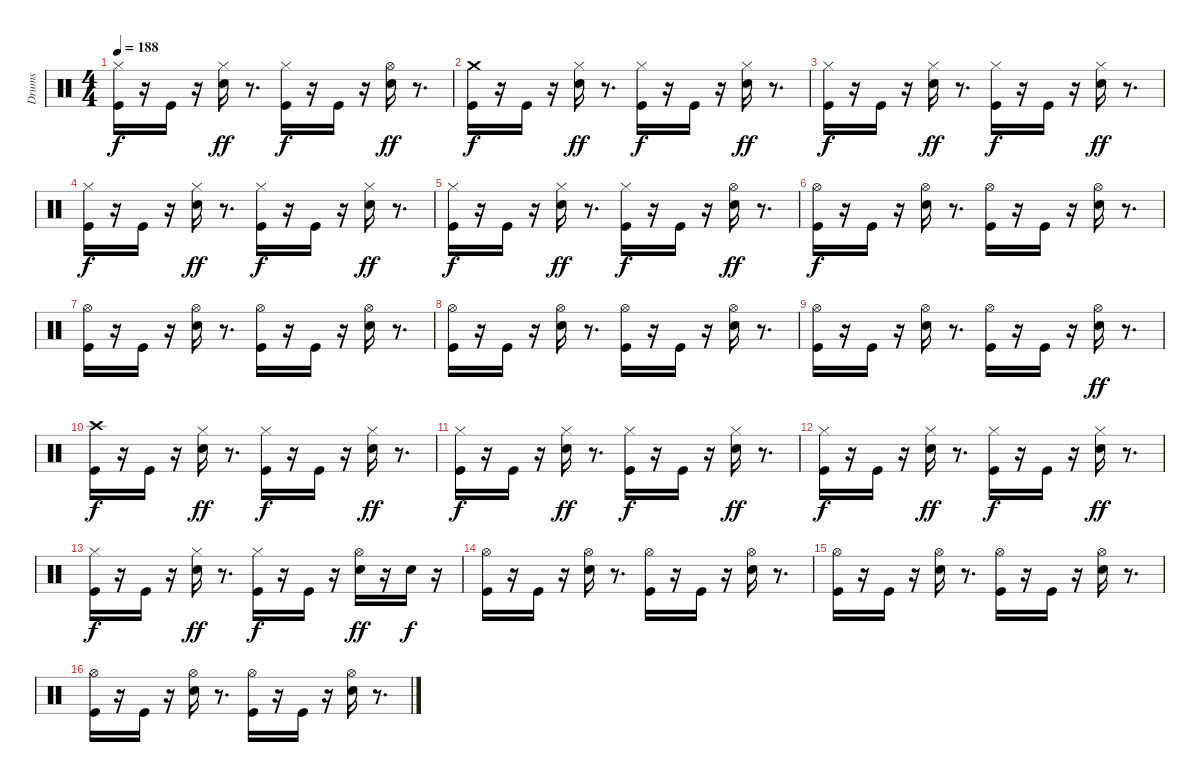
\track ("Drums" "Drums") {instrument percussion}
\staff {score}
\articulation defaults
\ts (4 4)
\tempo 188
\clef neutral
\ks c
("Hi-Hat (closed)" "Kick (hit)").16{dy f} r.16 "Kick (hit)".16 r.16 ("Snare (hit) 2" "Hi-Hat (closed)").16{dy ff} r.8{d} ("Hi-Hat (closed)" "Kick (hit)").16{dy f} r.16 "Kick (hit)".16 r.16 ("Snare (hit) 2" "Hi-Hat (open)").16{dy ff} r.8{d} |
("Crash medium (hit)" "Kick (hit)").16{dy f} r.16 "Kick (hit)".16 r.16 ("Snare (hit) 2" "Hi-Hat (closed)").16{dy ff} r.8{d} ("Hi-Hat (closed)" "Kick (hit)").16{dy f} r.16 "Kick (hit)".16 r.16 ("Snare (hit) 2" "Hi-Hat (closed)").16{dy ff} r.8{d} |
("Hi-Hat (closed)" "Kick (hit)").16{dy f} r.16 "Kick (hit)".16 r.16 ("Snare (hit) 2" "Hi-Hat (closed)").16{dy ff} r.8{d} ("Hi-Hat (closed)" "Kick (hit)").16{dy f} r.16 "Kick (hit)".16 r.16 ("Snare (hit) 2" "Hi-Hat (closed)").16{dy ff} r.8{d} |
("Hi-Hat (closed)" "Kick (hit)").16{dy f} r.16 "Kick (hit)".16 r.16 ("Snare (hit) 2" "Hi-Hat (closed)").16{dy ff} r.8{d} ("Hi-Hat (closed)" "Kick (hit)").16{dy f} r.16 "Kick (hit)".16 r.16 ("Snare (hit) 2" "Hi-Hat (closed)").16{dy ff} r.8{d} |
("Hi-Hat (closed)" "Kick (hit)").16{dy f} r.16 "Kick (hit)".16 r.16 ("Snare (hit) 2" "Hi-Hat (closed)").16{dy ff} r.8{d} ("Hi-Hat (closed)" "Kick (hit)").16{dy f} r.16 "Kick (hit)".16 r.16 ("Snare (hit) 2" "Hi-Hat (open)").16{dy ff} r.8{d} |
("Hi-Hat (open)" "Kick (hit)").16{dy f} r.16 "Kick (hit)".16 r.16 ("Hi-Hat (open)" "Snare (hit) 2").16 r.8{d} ("Hi-Hat (open)" "Kick (hit)").16 r.16 "Kick (hit)".16 r.16 ("Hi-Hat (open)" "Snare (hit) 2").16 r.8{d} |
("Hi-Hat (open)" "Kick (hit)").16 r.16 "Kick (hit)".16 r.16 ("Hi-Hat (open)" "Snare (hit) 2").16 r.8{d} ("Hi-Hat (open)" "Kick (hit)").16 r.16 "Kick (hit)".16 r.16 ("Hi-Hat (open)" "Snare (hit) 2").16 r.8{d} |
("Hi-Hat (open)" "Kick (hit)").16 r.16 "Kick (hit)".16 r.16 ("Hi-Hat (open)" "Snare (hit) 2").16 r.8{d} ("Hi-Hat (open)" "Kick (hit)").16 r.16 "Kick (hit)".16 r.16 ("Hi-Hat (open)" "Snare (hit) 2").16 r.8{d} |
("Hi-Hat (open)" "Kick (hit)").16 r.16 "Kick (hit)".16 r.16 ("Hi-Hat (open)" "Snare (hit) 2").16 r.8{d} ("Hi-Hat (open)" "Kick (hit)").16 r.16 "Kick (hit)".16 r.16 ("Snare (hit) 2" "Hi-Hat (open)").16{dy ff} r.8{d} |
("Crash high (hit)" "Kick (hit)").16{dy f} r.16 "Kick (hit)".16 r.16 ("Snare (hit) 2" "Hi-Hat (closed)").16{dy ff} r.8{d} ("Hi-Hat (closed)" "Kick (hit)").16{dy f} r.16 "Kick (hit)".16 r.16 ("Snare (hit) 2" "Hi-Hat (closed)").16{dy ff} r.8{d} |
("Hi-Hat (closed)" "Kick (hit)").16{dy f} r.16 "Kick (hit)".16 r.16 ("Snare (hit) 2" "Hi-Hat (closed)").16{dy ff} r.8{d} ("Hi-Hat (closed)" "Kick (hit)").16{dy f} r.16 "Kick (hit)".16 r.16 ("Snare (hit) 2" "Hi-Hat (closed)").16{dy ff} r.8{d} |
("Hi-Hat (closed)" "Kick (hit)").16{dy f} r.16 "Kick (hit)".16 r.16 ("Snare (hit) 2" "Hi-Hat (closed)").16{dy ff} r.8{d} ("Hi-Hat (closed)" "Kick (hit)").16{dy f} r.16 "Kick (hit)".16 r.16 ("Snare (hit) 2" "Hi-Hat (closed)").16{dy ff} r.8{d} |
("Hi-Hat (closed)" "Kick (hit)").16{dy f} r.16 "Kick (hit)".16 r.16 ("Snare (hit) 2" "Hi-Hat (closed)").16{dy ff} r.8{d} ("Hi-Hat (closed)" "Kick (hit)").16{dy f} r.16 "Kick (hit)".16 r.16 ("Snare (hit) 2" "Hi-Hat (open)").16{dy ff} r.16 "Snare (hit) 2".16{dy f} r.16 |
("Hi-Hat (open)" "Kick (hit)").16 r.16 "Kick (hit)".16 r.16 ("Hi-Hat (open)" "Snare (hit) 2").16 r.8{d} ("Hi-Hat (open)" "Kick (hit)").16 r.16 "Kick (hit)".16 r.16 ("Hi-Hat (open)" "Snare (hit) 2").16 r.8{d} |
("Hi-Hat (open)" "Kick (hit)").16 r.16 "Kick (hit)".16 r.16 ("Hi-Hat (open)" "Snare (hit) 2").16 r.8{d} ("Hi-Hat (open)" "Kick (hit)").16 r.16 "Kick (hit)".16 r.16 ("Hi-Hat (open)" "Snare (hit) 2").16 r.8{d} |
("Hi-Hat (open)" "Kick (hit)").16 r.16 "Kick (hit)".16 r.16 ("Hi-Hat (open)" "Snare (hit) 2").16 r.8{d} ("Hi-Hat (open)" "Kick (hit)").16 r.16 "Kick (hit)".16 r.16 ("Hi-Hat (open)" "Snare (hit) 2").16 r.8{d}
